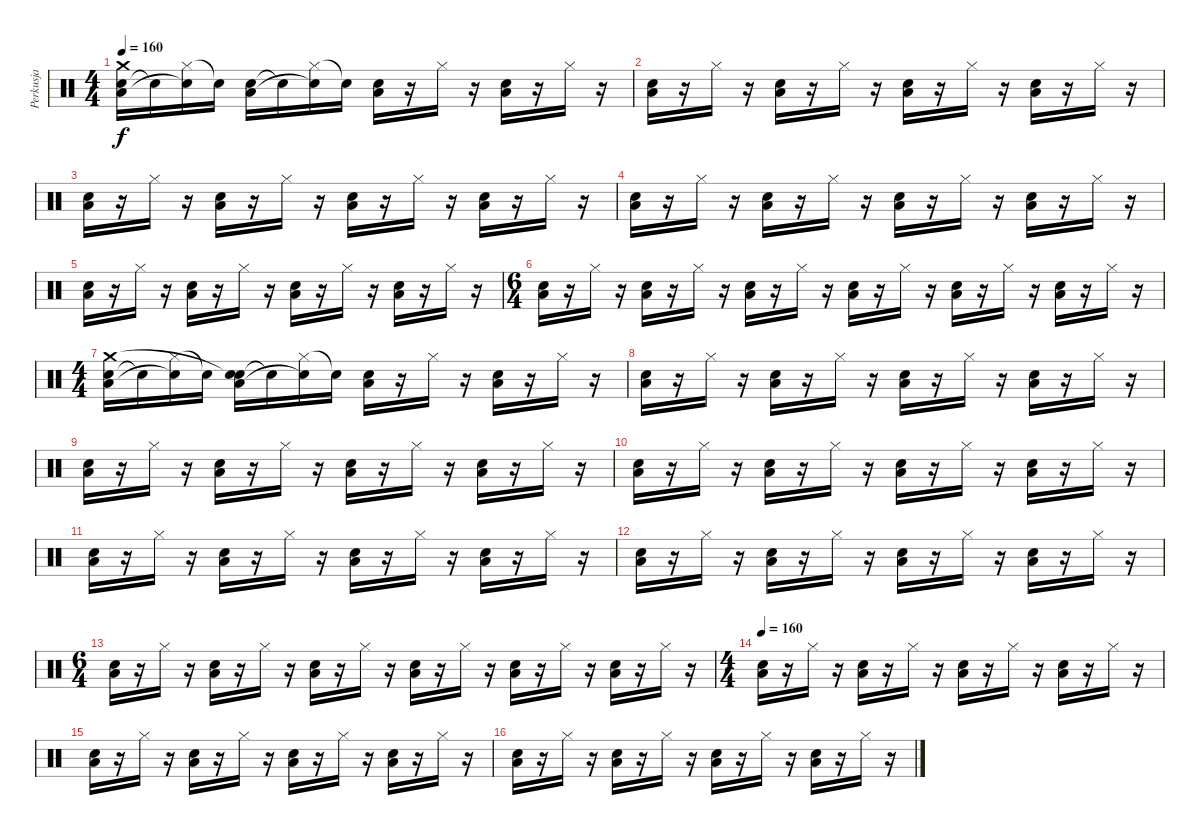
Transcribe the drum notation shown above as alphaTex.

\track ("Perkusja" "Perkusja") {instrument percussion}
\staff {score}
\articulation defaults
\ts (4 4)
\tempo 160
\clef neutral
\ks c
("Snare (hit) 2" "Low Tom (hit)" "Crash medium (hit)").16{dy f} "Snare (hit)"{t}.16 ("Hi-Hat (closed)" "Snare (hit)"{t}).16 "Snare (hit)"{t}.16 ("Snare (hit) 2" "Low Tom (hit)").16 "Snare (hit)"{t}.16 ("Hi-Hat (closed)" "Snare (hit)"{t}).16 "Snare (hit)"{t}.16 ("Snare (hit) 2" "Low Tom (hit)").16 r.16 "Hi-Hat (closed)".16 r.16 ("Snare (hit) 2" "Low Tom (hit)").16 r.16 "Hi-Hat (closed)".16 r.16 |
("Snare (hit) 2" "Low Tom (hit)").16 r.16 "Hi-Hat (closed)".16 r.16 ("Snare (hit) 2" "Low Tom (hit)").16 r.16 "Hi-Hat (closed)".16 r.16 ("Snare (hit) 2" "Low Tom (hit)").16 r.16 "Hi-Hat (closed)".16 r.16 ("Snare (hit) 2" "Low Tom (hit)").16 r.16 "Hi-Hat (closed)".16 r.16 |
("Snare (hit) 2" "Low Tom (hit)").16 r.16 "Hi-Hat (closed)".16 r.16 ("Snare (hit) 2" "Low Tom (hit)").16 r.16 "Hi-Hat (closed)".16 r.16 ("Snare (hit) 2" "Low Tom (hit)").16 r.16 "Hi-Hat (closed)".16 r.16 ("Snare (hit) 2" "Low Tom (hit)").16 r.16 "Hi-Hat (closed)".16 r.16 |
("Snare (hit) 2" "Low Tom (hit)").16 r.16 "Hi-Hat (closed)".16 r.16 ("Snare (hit) 2" "Low Tom (hit)").16 r.16 "Hi-Hat (closed)".16 r.16 ("Snare (hit) 2" "Low Tom (hit)").16 r.16 "Hi-Hat (closed)".16 r.16 ("Snare (hit) 2" "Low Tom (hit)").16 r.16 "Hi-Hat (closed)".16 r.16 |
("Snare (hit) 2" "Low Tom (hit)").16 r.16 "Hi-Hat (closed)".16 r.16 ("Snare (hit) 2" "Low Tom (hit)").16 r.16 "Hi-Hat (closed)".16 r.16 ("Snare (hit) 2" "Low Tom (hit)").16 r.16 "Hi-Hat (closed)".16 r.16 ("Snare (hit) 2" "Low Tom (hit)").16 r.16 "Hi-Hat (closed)".16 r.16 |
\ts (6 4)
("Snare (hit) 2" "Low Tom (hit)").16 r.16 "Hi-Hat (closed)".16 r.16 ("Snare (hit) 2" "Low Tom (hit)").16 r.16 "Hi-Hat (closed)".16 r.16 ("Snare (hit) 2" "Low Tom (hit)").16 r.16 "Hi-Hat (closed)".16 r.16 ("Snare (hit) 2" "Low Tom (hit)").16 r.16 "Hi-Hat (closed)".16 r.16 ("Snare (hit) 2" "Low Tom (hit)").16 r.16 "Hi-Hat (closed)".16 r.16 ("Snare (hit) 2" "Low Tom (hit)").16 r.16 "Hi-Hat (closed)".16 r.16 |
\ts (4 4)
("Snare (hit) 2" "Low Tom (hit)" "Crash medium (hit)").16 "Snare (hit)"{t}.16 ("Hi-Hat (closed)" "Snare (hit)"{t}).16 "Snare (hit)"{t}.16 ("Snare (hit) 2" "Low Tom (hit)" "Snare (hit)"{t}).16 "Snare (hit)"{t}.16 ("Hi-Hat (closed)" "Snare (hit)"{t}).16 "Snare (hit)"{t}.16 ("Snare (hit) 2" "Low Tom (hit)").16 r.16 "Hi-Hat (closed)".16 r.16 ("Snare (hit) 2" "Low Tom (hit)").16 r.16 "Hi-Hat (closed)".16 r.16 |
("Snare (hit) 2" "Low Tom (hit)").16 r.16 "Hi-Hat (closed)".16 r.16 ("Snare (hit) 2" "Low Tom (hit)").16 r.16 "Hi-Hat (closed)".16 r.16 ("Snare (hit) 2" "Low Tom (hit)").16 r.16 "Hi-Hat (closed)".16 r.16 ("Snare (hit) 2" "Low Tom (hit)").16 r.16 "Hi-Hat (closed)".16 r.16 |
("Snare (hit) 2" "Low Tom (hit)").16 r.16 "Hi-Hat (closed)".16 r.16 ("Snare (hit) 2" "Low Tom (hit)").16 r.16 "Hi-Hat (closed)".16 r.16 ("Snare (hit) 2" "Low Tom (hit)").16 r.16 "Hi-Hat (closed)".16 r.16 ("Snare (hit) 2" "Low Tom (hit)").16 r.16 "Hi-Hat (closed)".16 r.16 |
("Snare (hit) 2" "Low Tom (hit)").16 r.16 "Hi-Hat (closed)".16 r.16 ("Snare (hit) 2" "Low Tom (hit)").16 r.16 "Hi-Hat (closed)".16 r.16 ("Snare (hit) 2" "Low Tom (hit)").16 r.16 "Hi-Hat (closed)".16 r.16 ("Snare (hit) 2" "Low Tom (hit)").16 r.16 "Hi-Hat (closed)".16 r.16 |
("Snare (hit) 2" "Low Tom (hit)").16 r.16 "Hi-Hat (closed)".16 r.16 ("Snare (hit) 2" "Low Tom (hit)").16 r.16 "Hi-Hat (closed)".16 r.16 ("Snare (hit) 2" "Low Tom (hit)").16 r.16 "Hi-Hat (closed)".16 r.16 ("Snare (hit) 2" "Low Tom (hit)").16 r.16 "Hi-Hat (closed)".16 r.16 |
("Snare (hit) 2" "Low Tom (hit)").16 r.16 "Hi-Hat (closed)".16 r.16 ("Snare (hit) 2" "Low Tom (hit)").16 r.16 "Hi-Hat (closed)".16 r.16 ("Snare (hit) 2" "Low Tom (hit)").16 r.16 "Hi-Hat (closed)".16 r.16 ("Snare (hit) 2" "Low Tom (hit)").16 r.16 "Hi-Hat (closed)".16 r.16 |
\ts (6 4)
("Snare (hit) 2" "Low Tom (hit)").16 r.16 "Hi-Hat (closed)".16 r.16 ("Snare (hit) 2" "Low Tom (hit)").16 r.16 "Hi-Hat (closed)".16 r.16 ("Snare (hit) 2" "Low Tom (hit)").16 r.16 "Hi-Hat (closed)".16 r.16 ("Snare (hit) 2" "Low Tom (hit)").16 r.16 "Hi-Hat (closed)".16 r.16 ("Snare (hit) 2" "Low Tom (hit)").16 r.16 "Hi-Hat (closed)".16 r.16 ("Snare (hit) 2" "Low Tom (hit)").16 r.16 "Hi-Hat (closed)".16 r.16 |
\ts (4 4)
\tempo 160
("Snare (hit) 2" "Low Tom (hit)").16 r.16 "Hi-Hat (closed)".16 r.16 ("Snare (hit) 2" "Low Tom (hit)").16 r.16 "Hi-Hat (closed)".16 r.16 ("Snare (hit) 2" "Low Tom (hit)").16 r.16 "Hi-Hat (closed)".16 r.16 ("Snare (hit) 2" "Low Tom (hit)").16 r.16 "Hi-Hat (closed)".16 r.16 |
("Snare (hit) 2" "Low Tom (hit)").16 r.16 "Hi-Hat (closed)".16 r.16 ("Snare (hit) 2" "Low Tom (hit)").16 r.16 "Hi-Hat (closed)".16 r.16 ("Snare (hit) 2" "Low Tom (hit)").16 r.16 "Hi-Hat (closed)".16 r.16 ("Snare (hit) 2" "Low Tom (hit)").16 r.16 "Hi-Hat (closed)".16 r.16 |
("Snare (hit) 2" "Low Tom (hit)").16 r.16 "Hi-Hat (closed)".16 r.16 ("Snare (hit) 2" "Low Tom (hit)").16 r.16 "Hi-Hat (closed)".16 r.16 ("Snare (hit) 2" "Low Tom (hit)").16 r.16 "Hi-Hat (closed)".16 r.16 ("Snare (hit) 2" "Low Tom (hit)").16 r.16 "Hi-Hat (closed)".16 r.16
